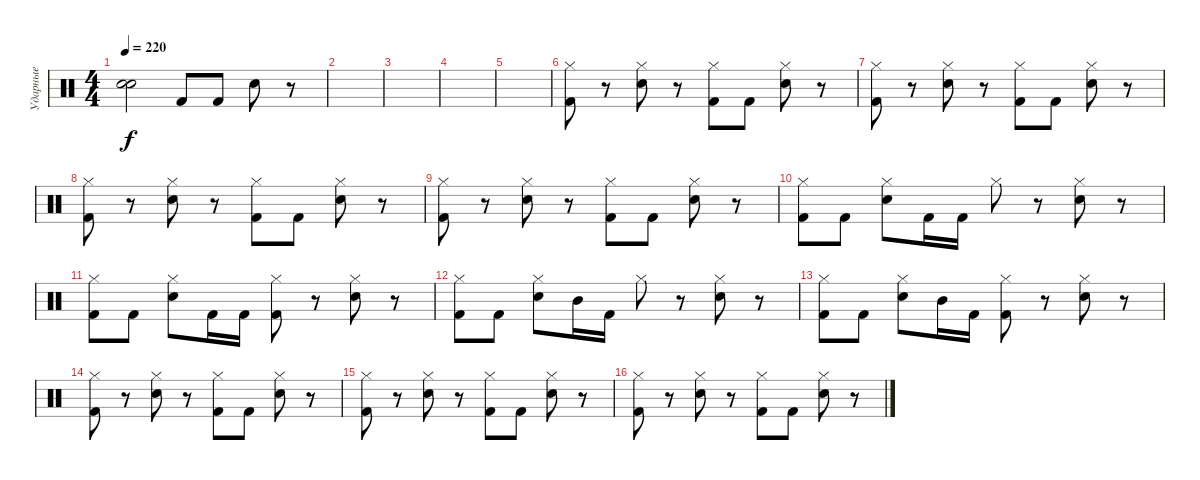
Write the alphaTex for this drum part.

\track ("Ударные" "Ударные") {instrument percussion}
\staff {score}
\articulation defaults
\ts (4 4)
\tempo 220
\clef neutral
\ks c
("Snare (hit)"{t} "Snare (hit)"{t}).2{dy f} "Kick (hit) 2".8 "Kick (hit) 2".8 "Electric Snare (hit)".8 r.8 |
|
|
|
|
("Hi-Hat (closed)" "Kick (hit) 2").8 r.8 ("Hi-Hat (closed)" "Electric Snare (hit)").8 r.8 ("Hi-Hat (closed)" "Kick (hit) 2").8 "Kick (hit) 2".8 ("Hi-Hat (closed)" "Electric Snare (hit)").8 r.8 |
("Hi-Hat (closed)" "Kick (hit) 2").8 r.8 ("Hi-Hat (closed)" "Electric Snare (hit)").8 r.8 ("Hi-Hat (closed)" "Kick (hit) 2").8 "Kick (hit) 2".8 ("Hi-Hat (closed)" "Electric Snare (hit)").8 r.8 |
("Hi-Hat (closed)" "Kick (hit) 2").8 r.8 ("Hi-Hat (closed)" "Electric Snare (hit)").8 r.8 ("Hi-Hat (closed)" "Kick (hit) 2").8 "Kick (hit) 2".8 ("Hi-Hat (closed)" "Electric Snare (hit)").8 r.8 |
("Hi-Hat (closed)" "Kick (hit) 2").8 r.8 ("Hi-Hat (closed)" "Electric Snare (hit)").8 r.8 ("Hi-Hat (closed)" "Kick (hit) 2").8 "Kick (hit) 2".8 ("Hi-Hat (closed)" "Electric Snare (hit)").8 r.8 |
("Hi-Hat (closed)" "Kick (hit) 2").8 "Kick (hit) 2".8 ("Hi-Hat (closed)" "Electric Snare (hit)").8 "Kick (hit) 2".16 "Kick (hit) 2".16 "Hi-Hat (closed)".8 r.8 ("Hi-Hat (closed)" "Electric Snare (hit)").8 r.8 |
("Hi-Hat (closed)" "Kick (hit) 2").8 "Kick (hit) 2".8 ("Hi-Hat (closed)" "Electric Snare (hit)").8 "Kick (hit) 2".16 "Kick (hit) 2".16 ("Hi-Hat (closed)" "Kick (hit) 2").8 r.8 ("Hi-Hat (closed)" "Electric Snare (hit)").8 r.8 |
("Hi-Hat (closed)" "Kick (hit) 2").8 "Kick (hit) 2".8 ("Hi-Hat (closed)" "Electric Snare (hit)").8 "Mid Tom (hit)".16 "Kick (hit) 2".16 "Hi-Hat (closed)".8 r.8 ("Hi-Hat (closed)" "Electric Snare (hit)").8 r.8 |
("Hi-Hat (closed)" "Kick (hit) 2").8 "Kick (hit) 2".8 ("Hi-Hat (closed)" "Electric Snare (hit)").8 "Mid Tom (hit)".16 "Kick (hit) 2".16 ("Hi-Hat (closed)" "Kick (hit) 2").8 r.8 ("Hi-Hat (closed)" "Electric Snare (hit)").8 r.8 |
("Hi-Hat (closed)" "Kick (hit) 2").8 r.8 ("Hi-Hat (closed)" "Electric Snare (hit)").8 r.8 ("Hi-Hat (closed)" "Kick (hit) 2").8 "Kick (hit) 2".8 ("Hi-Hat (closed)" "Electric Snare (hit)").8 r.8 |
("Hi-Hat (closed)" "Kick (hit) 2").8 r.8 ("Hi-Hat (closed)" "Electric Snare (hit)").8 r.8 ("Hi-Hat (closed)" "Kick (hit) 2").8 "Kick (hit) 2".8 ("Hi-Hat (closed)" "Electric Snare (hit)").8 r.8 |
("Hi-Hat (closed)" "Kick (hit) 2").8 r.8 ("Hi-Hat (closed)" "Electric Snare (hit)").8 r.8 ("Hi-Hat (closed)" "Kick (hit) 2").8 "Kick (hit) 2".8 ("Hi-Hat (closed)" "Electric Snare (hit)").8 r.8
